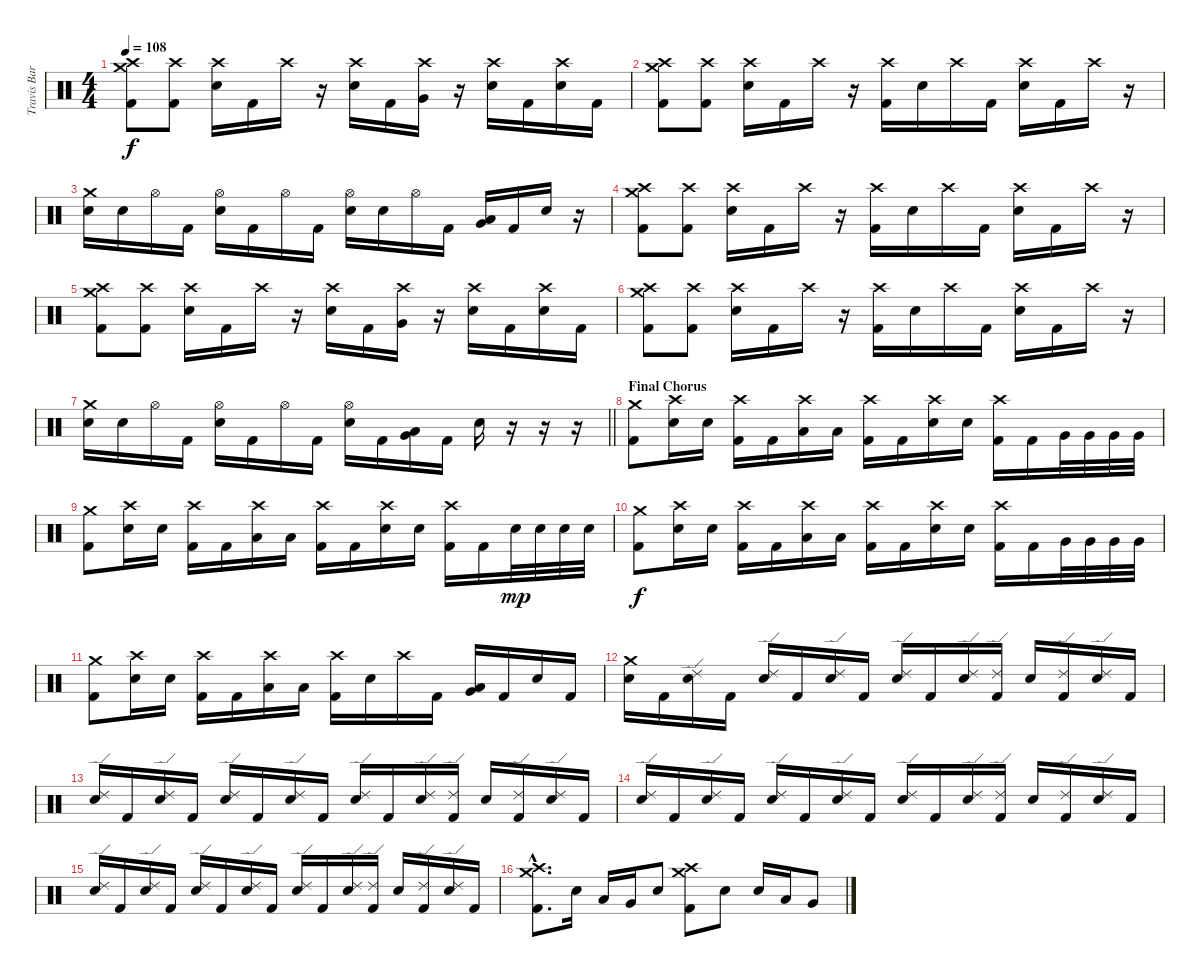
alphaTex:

\track ("Travis Barker" "Travis Bar") {instrument percussion}
\staff {score}
\articulation defaults
\ts (4 4)
\tempo 108
\clef neutral
\ks c
("Crash medium (hit)" "Crash high (hit)" "Kick (hit) 2").8{dy f} ("Crash high (hit)" "Kick (hit) 2").8 ("Crash high (hit)" "Electric Snare (hit)").16 "Kick (hit) 2".16 "Crash high (hit)".16 r.16 ("Crash high (hit)" "Electric Snare (hit)").16 "Kick (hit) 2".16 ("Crash high (hit)" "Very Low Tom (hit)").16 r.16 ("Crash high (hit)" "Electric Snare (hit)").16 "Kick (hit) 2".16 ("Crash high (hit)" "Electric Snare (hit)").16 "Kick (hit) 2".16 |
("Crash medium (hit)" "Crash high (hit)" "Kick (hit) 2").8 ("Crash high (hit)" "Kick (hit) 2").8 ("Crash high (hit)" "Electric Snare (hit)").16 "Kick (hit) 2".16 "Crash high (hit)".16 r.16 ("Crash high (hit)" "Kick (hit) 2").16 "Electric Snare (hit)".16 "Crash high (hit)".16 "Kick (hit) 2".16 ("Crash high (hit)" "Electric Snare (hit)").16 "Kick (hit) 2".16 "Crash high (hit)".16 r.16 |
("Crash medium (hit)" "Electric Snare (hit)").16 "Electric Snare (hit)".16 "Hi-Hat (open)".16 "Kick (hit) 2".16 ("Hi-Hat (open)" "Electric Snare (hit)").16 "Kick (hit) 2".16 "Hi-Hat (open)".16 "Kick (hit) 2".16 ("Hi-Hat (open)" "Electric Snare (hit)").16 "Electric Snare (hit)".16 "Hi-Hat (open)".16 "Kick (hit) 2".16 ("Low Tom (hit)" "Very Low Tom (hit)").16 "Kick (hit) 2".16 "Electric Snare (hit)".16 r.16 |
("Crash medium (hit)" "Crash high (hit)" "Kick (hit) 2").8 ("Crash high (hit)" "Kick (hit) 2").8 ("Crash high (hit)" "Electric Snare (hit)").16 "Kick (hit) 2".16 "Crash high (hit)".16 r.16 ("Crash high (hit)" "Kick (hit) 2").16 "Electric Snare (hit)".16 "Crash high (hit)".16 "Kick (hit) 2".16 ("Crash high (hit)" "Electric Snare (hit)").16 "Kick (hit) 2".16 "Crash high (hit)".16 r.16 |
("Crash medium (hit)" "Crash high (hit)" "Kick (hit) 2").8 ("Crash high (hit)" "Kick (hit) 2").8 ("Crash high (hit)" "Electric Snare (hit)").16 "Kick (hit) 2".16 "Crash high (hit)".16 r.16 ("Crash high (hit)" "Electric Snare (hit)").16 "Kick (hit) 2".16 ("Crash high (hit)" "Very Low Tom (hit)").16 r.16 ("Crash high (hit)" "Electric Snare (hit)").16 "Kick (hit) 2".16 ("Crash high (hit)" "Electric Snare (hit)").16 "Kick (hit) 2".16 |
("Crash medium (hit)" "Crash high (hit)" "Kick (hit) 2").8 ("Crash high (hit)" "Kick (hit) 2").8 ("Crash high (hit)" "Electric Snare (hit)").16 "Kick (hit) 2".16 "Crash high (hit)".16 r.16 ("Crash high (hit)" "Kick (hit) 2").16 "Electric Snare (hit)".16 "Crash high (hit)".16 "Kick (hit) 2".16 ("Crash high (hit)" "Electric Snare (hit)").16 "Kick (hit) 2".16 "Crash high (hit)".16 r.16 |
\barLineRight lightlight
("Crash medium (hit)" "Electric Snare (hit)").16 "Electric Snare (hit)".16 "Hi-Hat (open)".16 "Kick (hit) 2".16 ("Hi-Hat (open)" "Electric Snare (hit)").16 "Kick (hit) 2".16 "Hi-Hat (open)".16 "Kick (hit) 2".16 ("Hi-Hat (open)" "Electric Snare (hit)").16 "Kick (hit) 2".16 ("Low Tom (hit)" "Very Low Tom (hit)").16 "Kick (hit) 2".16 "Electric Snare (hit)".16 r.16 r.16 r.16 |
\section ("" "Final Chorus")
("Crash medium (hit)" "Kick (hit) 2").8 ("Crash high (hit)" "Electric Snare (hit)").16 "Electric Snare (hit)".16 ("Crash high (hit)" "Kick (hit) 2").16 "Kick (hit) 2".16 ("Crash high (hit)" "Low Tom (hit)").16 "Low Tom (hit)".16 ("Crash high (hit)" "Kick (hit) 2").16 "Kick (hit) 2".16 ("Crash high (hit)" "Electric Snare (hit)").16 "Electric Snare (hit)".16 ("Crash high (hit)" "Kick (hit) 2").16 "Kick (hit) 2".16 "Very Low Tom (hit)".32 "Very Low Tom (hit)".32 "Very Low Tom (hit)".32 "Very Low Tom (hit)".32 |
("Crash medium (hit)" "Kick (hit) 2").8 ("Crash high (hit)" "Electric Snare (hit)").16 "Electric Snare (hit)".16 ("Crash high (hit)" "Kick (hit) 2").16 "Kick (hit) 2".16 ("Crash high (hit)" "Low Tom (hit)").16 "Low Tom (hit)".16 ("Crash high (hit)" "Kick (hit) 2").16 "Kick (hit) 2".16 ("Crash high (hit)" "Electric Snare (hit)").16 "Electric Snare (hit)".16 ("Crash high (hit)" "Kick (hit) 2").16 "Kick (hit) 2".16 "Electric Snare (hit)".32{dy mp} "Electric Snare (hit)".32 "Electric Snare (hit)".32 "Electric Snare (hit)".32 |
("Crash medium (hit)" "Kick (hit) 2").8{dy f} ("Crash high (hit)" "Electric Snare (hit)").16 "Electric Snare (hit)".16 ("Crash high (hit)" "Kick (hit) 2").16 "Kick (hit) 2".16 ("Crash high (hit)" "Low Tom (hit)").16 "Low Tom (hit)".16 ("Crash high (hit)" "Kick (hit) 2").16 "Kick (hit) 2".16 ("Crash high (hit)" "Electric Snare (hit)").16 "Electric Snare (hit)".16 ("Crash high (hit)" "Kick (hit) 2").16 "Kick (hit) 2".16 "Very Low Tom (hit)".32 "Very Low Tom (hit)".32 "Very Low Tom (hit)".32 "Very Low Tom (hit)".32 |
("Crash medium (hit)" "Kick (hit) 2").8 ("Crash high (hit)" "Electric Snare (hit)").16 "Electric Snare (hit)".16 ("Crash high (hit)" "Kick (hit) 2").16 "Kick (hit) 2".16 ("Crash high (hit)" "Low Tom (hit)").16 "Low Tom (hit)".16 ("Crash high (hit)" "Kick (hit) 2").16 "Electric Snare (hit)".16 "Crash high (hit)".16 "Kick (hit) 2".16 ("Low Tom (hit)" "Very Low Tom (hit)").16 "Kick (hit) 2".16 "Electric Snare (hit)".16 "Kick (hit) 2".16 |
("Crash medium (hit)" "Electric Snare (hit)").16 "Kick (hit) 2".16 ("Ride (edge) 2" "Electric Snare (hit)").16 "Kick (hit) 2".16 ("Ride (edge) 2" "Electric Snare (hit)").16 "Kick (hit) 2".16 ("Ride (edge) 2" "Electric Snare (hit)").16 "Kick (hit) 2".16 ("Ride (edge) 2" "Electric Snare (hit)").16 "Kick (hit) 2".16 ("Ride (edge) 2" "Electric Snare (hit)").16 ("Ride (edge) 2" "Kick (hit) 2").16 "Electric Snare (hit)".16 ("Ride (edge) 2" "Kick (hit) 2").16 ("Ride (edge) 2" "Electric Snare (hit)").16 "Kick (hit) 2".16 |
("Ride (edge) 2" "Electric Snare (hit)").16 "Kick (hit) 2".16 ("Ride (edge) 2" "Electric Snare (hit)").16 "Kick (hit) 2".16 ("Ride (edge) 2" "Electric Snare (hit)").16 "Kick (hit) 2".16 ("Ride (edge) 2" "Electric Snare (hit)").16 "Kick (hit) 2".16 ("Ride (edge) 2" "Electric Snare (hit)").16 "Kick (hit) 2".16 ("Ride (edge) 2" "Electric Snare (hit)").16 ("Ride (edge) 2" "Kick (hit) 2").16 "Electric Snare (hit)".16 ("Ride (edge) 2" "Kick (hit) 2").16 ("Ride (edge) 2" "Electric Snare (hit)").16 "Kick (hit) 2".16 |
("Ride (edge) 2" "Electric Snare (hit)").16 "Kick (hit) 2".16 ("Ride (edge) 2" "Electric Snare (hit)").16 "Kick (hit) 2".16 ("Ride (edge) 2" "Electric Snare (hit)").16 "Kick (hit) 2".16 ("Ride (edge) 2" "Electric Snare (hit)").16 "Kick (hit) 2".16 ("Ride (edge) 2" "Electric Snare (hit)").16 "Kick (hit) 2".16 ("Ride (edge) 2" "Electric Snare (hit)").16 ("Ride (edge) 2" "Kick (hit) 2").16 "Electric Snare (hit)".16 ("Ride (edge) 2" "Kick (hit) 2").16 ("Ride (edge) 2" "Electric Snare (hit)").16 "Kick (hit) 2".16 |
("Ride (edge) 2" "Electric Snare (hit)").16 "Kick (hit) 2".16 ("Ride (edge) 2" "Electric Snare (hit)").16 "Kick (hit) 2".16 ("Ride (edge) 2" "Electric Snare (hit)").16 "Kick (hit) 2".16 ("Ride (edge) 2" "Electric Snare (hit)").16 "Kick (hit) 2".16 ("Ride (edge) 2" "Electric Snare (hit)").16 "Kick (hit) 2".16 ("Ride (edge) 2" "Electric Snare (hit)").16 ("Ride (edge) 2" "Kick (hit) 2").16 "Electric Snare (hit)".16 ("Ride (edge) 2" "Kick (hit) 2").16 ("Ride (edge) 2" "Electric Snare (hit)").16 "Kick (hit) 2".16 |
("Crash medium (hit)"{hac} "Crash high (hit)"{hac} "Kick (hit) 2"{hac}).8{d} "Electric Snare (hit)".16 "Low Tom (hit)".16 "Very Low Tom (hit)".16 "Electric Snare (hit)".8 ("Crash medium (hit)" "Crash high (hit)" "Kick (hit) 2").8 "Electric Snare (hit)".8 "Electric Snare (hit)".16 "Low Tom (hit)".16 "Very Low Tom (hit)".8
